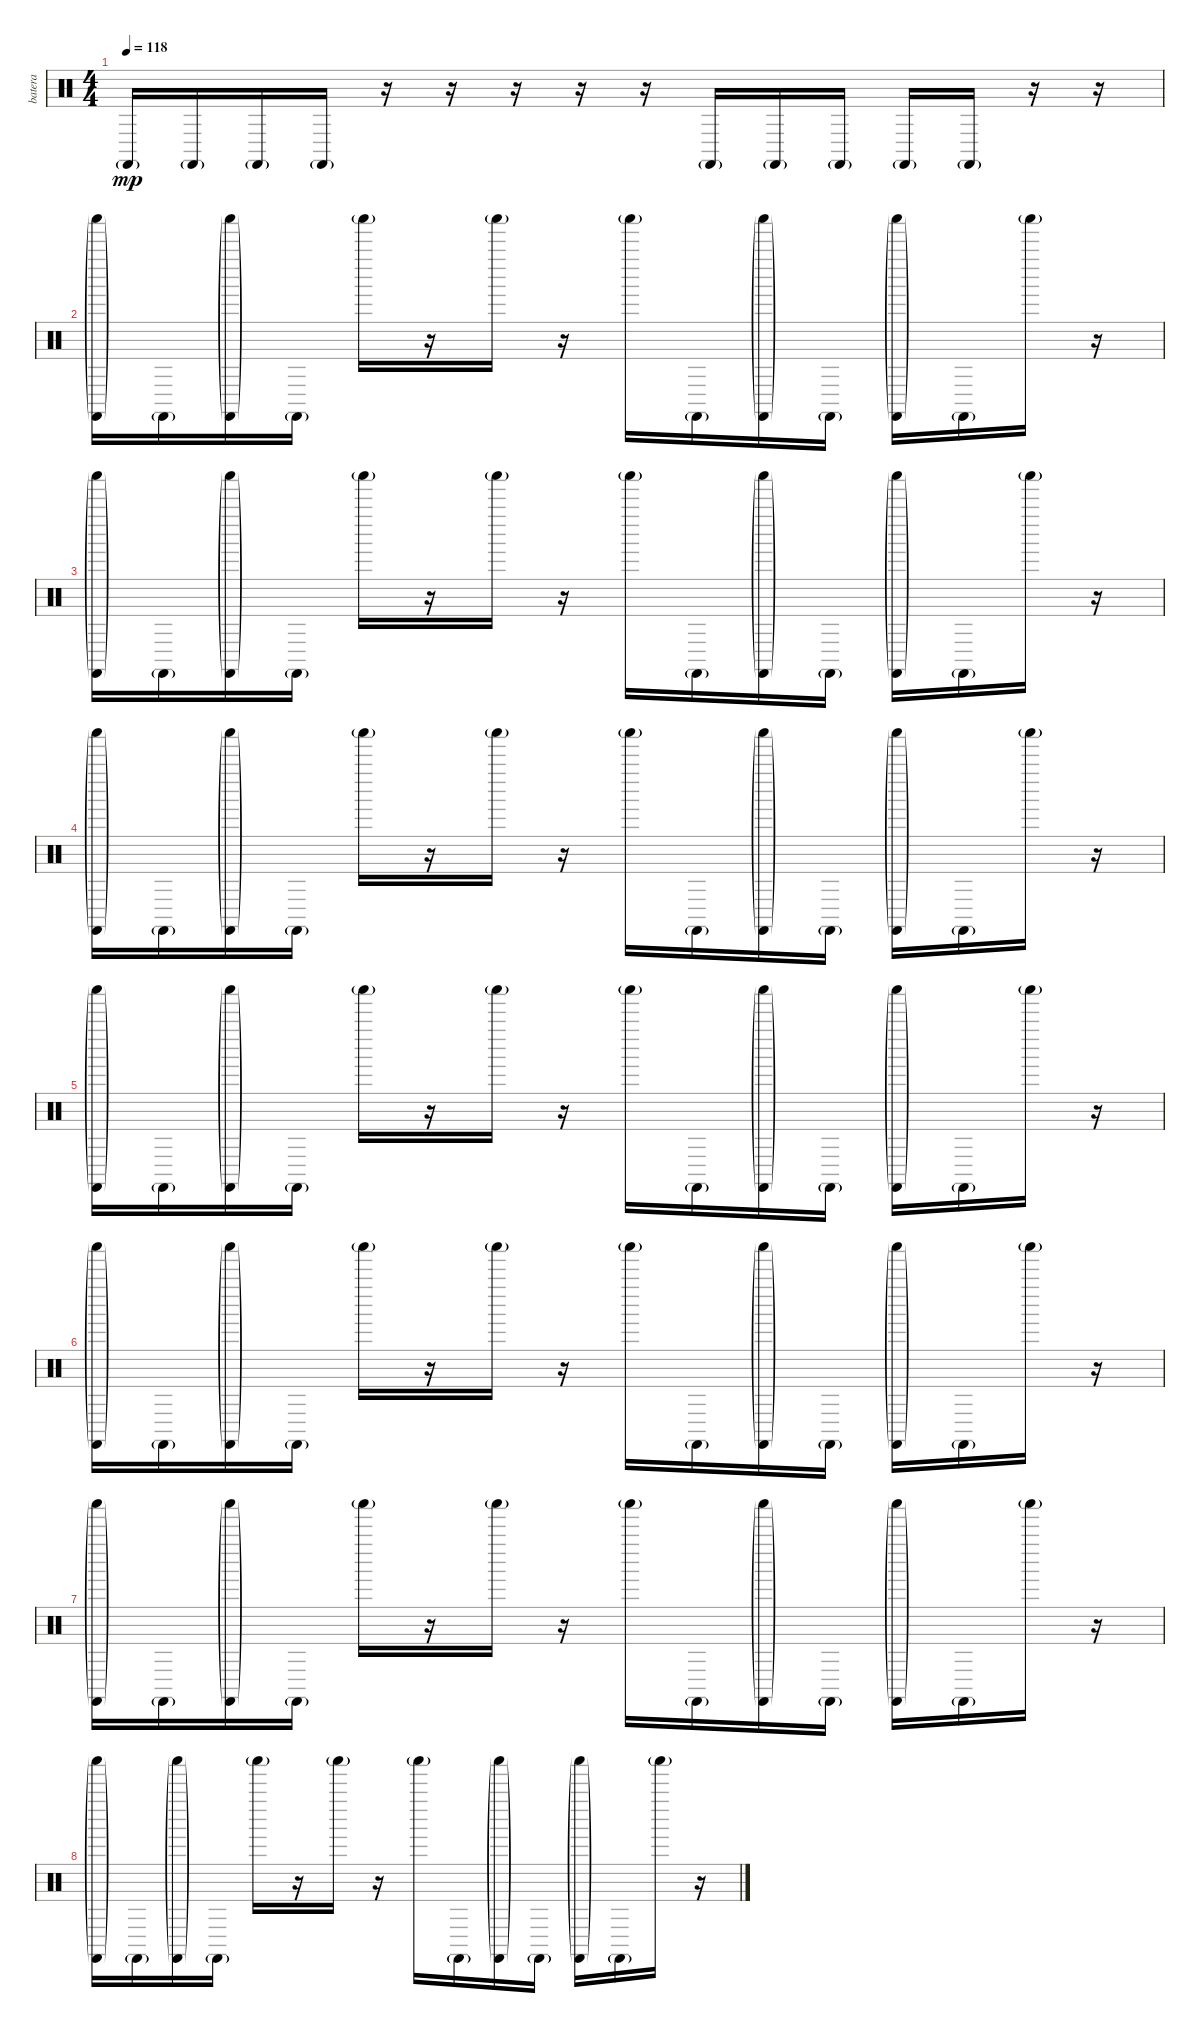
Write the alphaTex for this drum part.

\track ("batera" "batera") {instrument percussion}
\staff {score}
\articulation defaults
\ts (4 4)
\tempo 118
\clef neutral
\ks c "Castanets (hit)"{g}.16{dy mp} "Castanets (hit)"{g}.16 "Castanets (hit)"{g}.16 "Castanets (hit)"{g}.16
r.16 r.16 r.16 r.16 r.16 "Castanets (hit)"{g}.16 "Castanets (hit)"{g}.16 "Castanets (hit)"{g}.16 "Castanets (hit)"{g}.16 "Castanets (hit)"{g}.16 r.16 r.16 |
("Castanets (hit)"{g} "Shaker (hit)"{g}).16 "Castanets (hit)"{g}.16 ("Castanets (hit)"{g} "Shaker (hit)"{g}).16 "Castanets (hit)"{g}.16 "Shaker (hit)"{g}.16 r.16 "Shaker (hit)"{g}.16 r.16 "Shaker (hit)"{g}.16 "Castanets (hit)"{g}.16 ("Castanets (hit)"{g} "Shaker (hit)"{g}).16 "Castanets (hit)"{g}.16 ("Castanets (hit)"{g} "Shaker (hit)"{g}).16 "Castanets (hit)"{g}.16 "Shaker (hit)"{g}.16 r.16 |
("Castanets (hit)"{g} "Shaker (hit)"{g}).16 "Castanets (hit)"{g}.16 ("Castanets (hit)"{g} "Shaker (hit)"{g}).16 "Castanets (hit)"{g}.16 "Shaker (hit)"{g}.16 r.16 "Shaker (hit)"{g}.16 r.16 "Shaker (hit)"{g}.16 "Castanets (hit)"{g}.16 ("Castanets (hit)"{g} "Shaker (hit)"{g}).16 "Castanets (hit)"{g}.16 ("Castanets (hit)"{g} "Shaker (hit)"{g}).16 "Castanets (hit)"{g}.16 "Shaker (hit)"{g}.16 r.16 |
("Castanets (hit)"{g} "Shaker (hit)"{g}).16 "Castanets (hit)"{g}.16 ("Castanets (hit)"{g} "Shaker (hit)"{g}).16 "Castanets (hit)"{g}.16 "Shaker (hit)"{g}.16 r.16 "Shaker (hit)"{g}.16 r.16 "Shaker (hit)"{g}.16 "Castanets (hit)"{g}.16 ("Castanets (hit)"{g} "Shaker (hit)"{g}).16 "Castanets (hit)"{g}.16 ("Castanets (hit)"{g} "Shaker (hit)"{g}).16 "Castanets (hit)"{g}.16 "Shaker (hit)"{g}.16 r.16 |
("Castanets (hit)"{g} "Shaker (hit)"{g}).16 "Castanets (hit)"{g}.16 ("Castanets (hit)"{g} "Shaker (hit)"{g}).16 "Castanets (hit)"{g}.16 "Shaker (hit)"{g}.16 r.16 "Shaker (hit)"{g}.16 r.16 "Shaker (hit)"{g}.16 "Castanets (hit)"{g}.16 ("Castanets (hit)"{g} "Shaker (hit)"{g}).16 "Castanets (hit)"{g}.16 ("Castanets (hit)"{g} "Shaker (hit)"{g}).16 "Castanets (hit)"{g}.16 "Shaker (hit)"{g}.16 r.16 |
("Castanets (hit)"{g} "Shaker (hit)"{g}).16 "Castanets (hit)"{g}.16 ("Castanets (hit)"{g} "Shaker (hit)"{g}).16 "Castanets (hit)"{g}.16 "Shaker (hit)"{g}.16 r.16 "Shaker (hit)"{g}.16 r.16 "Shaker (hit)"{g}.16 "Castanets (hit)"{g}.16 ("Castanets (hit)"{g} "Shaker (hit)"{g}).16 "Castanets (hit)"{g}.16 ("Castanets (hit)"{g} "Shaker (hit)"{g}).16 "Castanets (hit)"{g}.16 "Shaker (hit)"{g}.16 r.16 |
("Castanets (hit)"{g} "Shaker (hit)"{g}).16 "Castanets (hit)"{g}.16 ("Castanets (hit)"{g} "Shaker (hit)"{g}).16 "Castanets (hit)"{g}.16 "Shaker (hit)"{g}.16 r.16 "Shaker (hit)"{g}.16 r.16 "Shaker (hit)"{g}.16 "Castanets (hit)"{g}.16 ("Castanets (hit)"{g} "Shaker (hit)"{g}).16 "Castanets (hit)"{g}.16 ("Castanets (hit)"{g} "Shaker (hit)"{g}).16 "Castanets (hit)"{g}.16 "Shaker (hit)"{g}.16 r.16 |
("Castanets (hit)"{g} "Shaker (hit)"{g}).16 "Castanets (hit)"{g}.16 ("Castanets (hit)"{g} "Shaker (hit)"{g}).16 "Castanets (hit)"{g}.16 "Shaker (hit)"{g}.16 r.16 "Shaker (hit)"{g}.16 r.16 "Shaker (hit)"{g}.16 "Castanets (hit)"{g}.16 ("Castanets (hit)"{g} "Shaker (hit)"{g}).16 "Castanets (hit)"{g}.16 ("Castanets (hit)"{g} "Shaker (hit)"{g}).16 "Castanets (hit)"{g}.16 "Shaker (hit)"{g}.16 r.16
